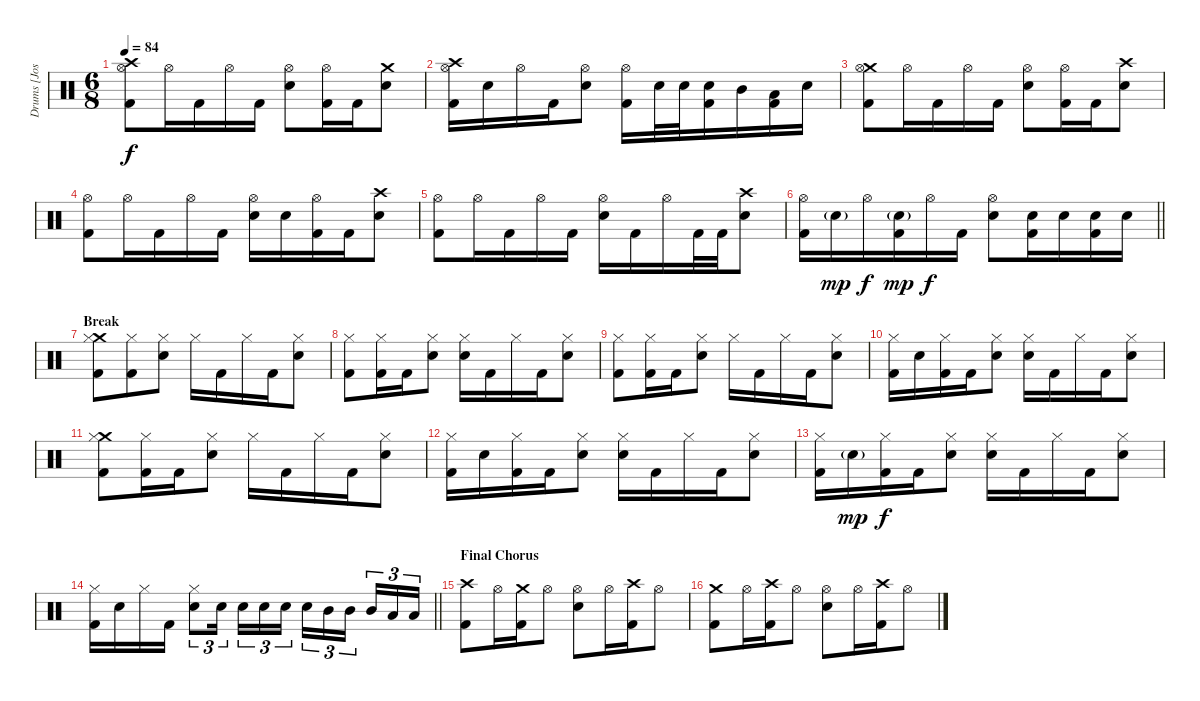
\track ("Drums [Josh Freese]" "Drums [Jos") {instrument percussion}
\staff {score}
\articulation defaults
\ts (6 8)
\tempo 84
\clef neutral
\ks c
("Crash high (hit)" "Hi-Hat (open)" "Kick (hit) 2").8{dy f} "Hi-Hat (open)".16 "Kick (hit) 2".16 "Hi-Hat (open)".16 "Kick (hit) 2".16 ("Hi-Hat (open)" "Electric Snare (hit)").8 ("Hi-Hat (open)" "Kick (hit) 2").16 "Kick (hit) 2".16 ("Crash medium (hit)" "Electric Snare (hit)").8 |
("Crash high (hit)" "Hi-Hat (open)" "Kick (hit) 2").16 "Electric Snare (hit)".16 "Hi-Hat (open)".16 "Kick (hit) 2".16 ("Hi-Hat (open)" "Electric Snare (hit)").8 ("Hi-Hat (open)" "Kick (hit) 2").16 "Electric Snare (hit)".32 "Electric Snare (hit)".32 ("Electric Snare (hit)" "Kick (hit) 2").16 "Mid Tom (hit)".16 ("Low Tom (hit)" "Kick (hit) 2").16 "Electric Snare (hit)".16 |
("Crash medium (hit)" "Hi-Hat (open)" "Kick (hit) 2").8 "Hi-Hat (open)".16 "Kick (hit) 2".16 "Hi-Hat (open)".16 "Kick (hit) 2".16 ("Hi-Hat (open)" "Electric Snare (hit)").8 ("Hi-Hat (open)" "Kick (hit) 2").16 "Kick (hit) 2".16 ("Crash high (hit)" "Electric Snare (hit)").8 |
("Hi-Hat (open)" "Kick (hit) 2").8 "Hi-Hat (open)".16 "Kick (hit) 2".16 "Hi-Hat (open)".16 "Kick (hit) 2".16 ("Hi-Hat (open)" "Electric Snare (hit)").16 "Electric Snare (hit)".16 ("Hi-Hat (open)" "Kick (hit) 2").16 "Kick (hit) 2".16 ("Crash high (hit)" "Electric Snare (hit)").8 |
("Hi-Hat (open)" "Kick (hit) 2").8 "Hi-Hat (open)".16 "Kick (hit) 2".16 "Hi-Hat (open)".16 "Kick (hit) 2".16 ("Hi-Hat (open)" "Electric Snare (hit)").16 "Kick (hit) 2".16 "Hi-Hat (open)".16 "Kick (hit) 2".32 "Kick (hit) 2".32 ("Crash high (hit)" "Electric Snare (hit)").8 |
\barLineRight lightlight
("Hi-Hat (open)" "Kick (hit) 2").16 "Electric Snare (hit)"{g}.16{dy mp} "Hi-Hat (open)".16{dy f} ("Electric Snare (hit)"{g} "Kick (hit) 2").16{dy mp} "Hi-Hat (open)".16{dy f} "Kick (hit) 2".16 ("Hi-Hat (open)" "Electric Snare (hit)").8 ("Electric Snare (hit)" "Kick (hit) 2").16 "Electric Snare (hit)".16 ("Electric Snare (hit)" "Kick (hit) 2").16 "Electric Snare (hit)".16 |
\section ("" "Break")
("Crash medium (hit)" "Hi-Hat (closed)" "Kick (hit) 2").8 ("Hi-Hat (closed)" "Kick (hit) 2").8 ("Hi-Hat (closed)" "Electric Snare (hit)").8 "Hi-Hat (closed)".16 "Kick (hit) 2".16 "Hi-Hat (closed)".16 "Kick (hit) 2".16 ("Hi-Hat (closed)" "Electric Snare (hit)").8 |
("Hi-Hat (closed)" "Kick (hit) 2").8 ("Hi-Hat (closed)" "Kick (hit) 2").16 "Kick (hit) 2".16 ("Hi-Hat (closed)" "Electric Snare (hit)").8 ("Hi-Hat (closed)" "Electric Snare (hit)").16 "Kick (hit) 2".16 "Hi-Hat (closed)".16 "Kick (hit) 2".16 ("Hi-Hat (closed)" "Electric Snare (hit)").8 |
("Hi-Hat (closed)" "Kick (hit) 2").8 ("Hi-Hat (closed)" "Kick (hit) 2").16 "Kick (hit) 2".16 ("Hi-Hat (closed)" "Electric Snare (hit)").8 "Hi-Hat (closed)".16 "Kick (hit) 2".16 "Hi-Hat (closed)".16 "Kick (hit) 2".16 ("Hi-Hat (closed)" "Electric Snare (hit)").8 |
("Hi-Hat (closed)" "Kick (hit) 2").16 "Electric Snare (hit)".16 ("Hi-Hat (closed)" "Kick (hit) 2").16 "Kick (hit) 2".16 ("Hi-Hat (closed)" "Electric Snare (hit)").8 ("Hi-Hat (closed)" "Electric Snare (hit)").16 "Kick (hit) 2".16 "Hi-Hat (closed)".16 "Kick (hit) 2".16 ("Hi-Hat (closed)" "Electric Snare (hit)").8 |
("Crash medium (hit)" "Hi-Hat (closed)" "Kick (hit) 2").8 ("Hi-Hat (closed)" "Kick (hit) 2").16 "Kick (hit) 2".16 ("Hi-Hat (closed)" "Electric Snare (hit)").8 "Hi-Hat (closed)".16 "Kick (hit) 2".16 "Hi-Hat (closed)".16 "Kick (hit) 2".16 ("Hi-Hat (closed)" "Electric Snare (hit)").8 |
("Hi-Hat (closed)" "Kick (hit) 2").16 "Electric Snare (hit)".16 ("Hi-Hat (closed)" "Kick (hit) 2").16 "Kick (hit) 2".16 ("Hi-Hat (closed)" "Electric Snare (hit)").8 ("Hi-Hat (closed)" "Electric Snare (hit)").16 "Kick (hit) 2".16 "Hi-Hat (closed)".16 "Kick (hit) 2".16 ("Hi-Hat (closed)" "Electric Snare (hit)").8 |
("Hi-Hat (closed)" "Kick (hit) 2").16 "Electric Snare (hit)"{g}.16{dy mp} ("Hi-Hat (closed)" "Kick (hit) 2").16{dy f} "Kick (hit) 2".16 ("Hi-Hat (closed)" "Electric Snare (hit)").8 ("Hi-Hat (closed)" "Electric Snare (hit)").16 "Kick (hit) 2".16 "Hi-Hat (closed)".16 "Kick (hit) 2".16 ("Hi-Hat (closed)" "Electric Snare (hit)").8 |
\barLineRight lightlight
("Hi-Hat (closed)" "Kick (hit) 2").16 "Electric Snare (hit)".16 "Hi-Hat (closed)".16 "Kick (hit) 2".16 ("Hi-Hat (closed)" "Electric Snare (hit)").8{tu (3 2)} "Electric Snare (hit)".16{tu (3 2)} "Electric Snare (hit)".16{tu (3 2)} "Electric Snare (hit)".16{tu (3 2)} "Electric Snare (hit)".16{tu (3 2) beam splitsecondary} "Electric Snare (hit)".16{tu (3 2)} "Mid Tom (hit)".16{tu (3 2)} "Mid Tom (hit)".16{tu (3 2) beam splitsecondary} "Mid Tom (hit)".16{tu (3 2)} "Low Tom (hit)".16{tu (3 2)} "Low Tom (hit)".16{tu (3 2)} |
\section ("" "Final Chorus")
("Crash high (hit)" "Kick (hit) 2").8 "Hi-Hat (open)".16 ("Crash medium (hit)" "Kick (hit) 2").16 "Hi-Hat (open)".8 ("Hi-Hat (open)" "Electric Snare (hit)").8 "Hi-Hat (open)".16 ("Crash high (hit)" "Kick (hit) 2").16 "Hi-Hat (open)".8 |
("Crash medium (hit)" "Kick (hit) 2").8 "Hi-Hat (open)".16 ("Crash high (hit)" "Kick (hit) 2").16 "Hi-Hat (open)".8 ("Hi-Hat (open)" "Electric Snare (hit)").8 "Hi-Hat (open)".16 ("Crash high (hit)" "Kick (hit) 2").16 "Hi-Hat (open)".8
